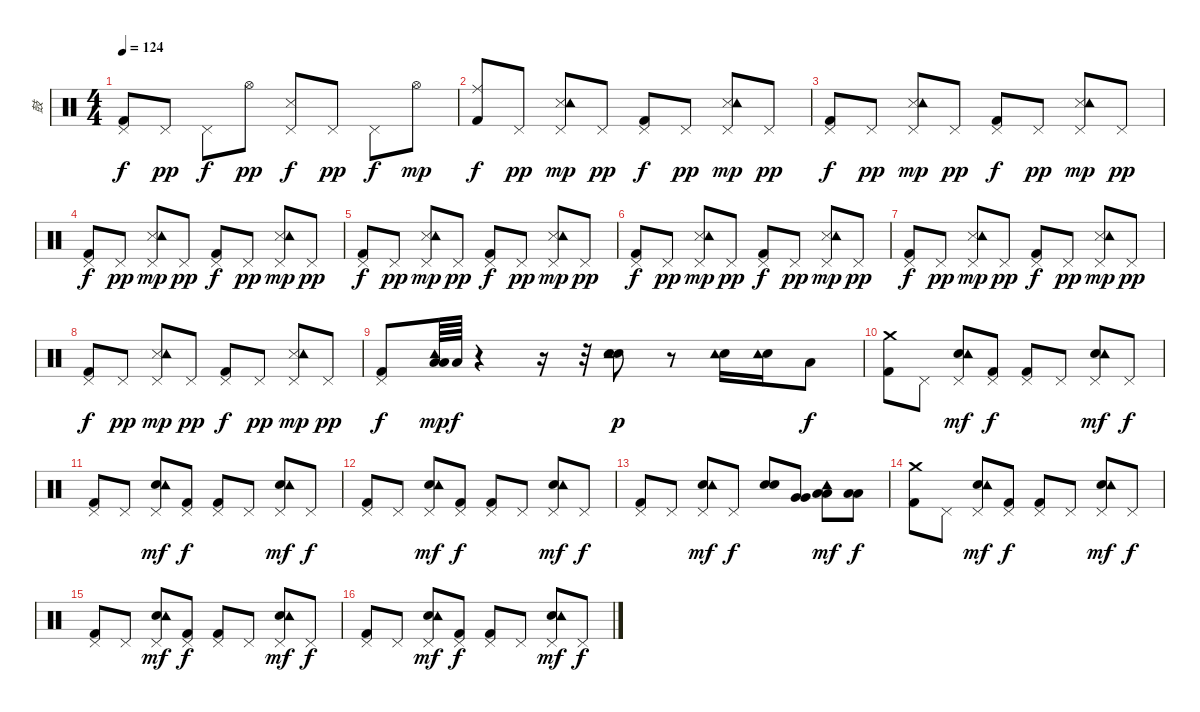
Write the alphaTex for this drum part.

\track ("鼓" "鼓") {instrument percussion}
\staff {score}
\articulation defaults
\ts (4 4)
\tempo 124
\clef neutral
\ks c
("Kick (hit) 2" "Pedal Hi-Hat (hit)").8{dy f} "Pedal Hi-Hat (hit)".8{dy pp} "Pedal Hi-Hat (hit)".8{dy f} "Hi-Hat (open)".8{dy pp} ("Snare (side stick) 3" "Pedal Hi-Hat (hit)").8{dy f} "Pedal Hi-Hat (hit)".8{dy pp} "Pedal Hi-Hat (hit)".8{dy f} "Hi-Hat (open)".8{dy mp} |
("Kick (hit) 2" "Ride (middle)").8{dy f} "Pedal Hi-Hat (hit)".8{dy pp} ("Snare (side stick) 3" "Pedal Hi-Hat (hit)" "Tambourine (hit)").8{dy mp} "Pedal Hi-Hat (hit)".8{dy pp} ("Kick (hit) 2" "Pedal Hi-Hat (hit)").8{dy f} "Pedal Hi-Hat (hit)".8{dy pp} ("Snare (side stick) 3" "Pedal Hi-Hat (hit)" "Tambourine (hit)").8{dy mp} "Pedal Hi-Hat (hit)".8{dy pp} |
("Kick (hit) 2" "Pedal Hi-Hat (hit)").8{dy f} "Pedal Hi-Hat (hit)".8{dy pp} ("Snare (side stick) 3" "Pedal Hi-Hat (hit)" "Tambourine (hit)").8{dy mp} "Pedal Hi-Hat (hit)".8{dy pp} ("Kick (hit) 2" "Pedal Hi-Hat (hit)").8{dy f} "Pedal Hi-Hat (hit)".8{dy pp} ("Snare (side stick) 3" "Pedal Hi-Hat (hit)" "Tambourine (hit)").8{dy mp} "Pedal Hi-Hat (hit)".8{dy pp} |
("Kick (hit) 2" "Pedal Hi-Hat (hit)").8{dy f} "Pedal Hi-Hat (hit)".8{dy pp} ("Snare (side stick) 3" "Pedal Hi-Hat (hit)" "Tambourine (hit)").8{dy mp} "Pedal Hi-Hat (hit)".8{dy pp} ("Kick (hit) 2" "Pedal Hi-Hat (hit)").8{dy f} "Pedal Hi-Hat (hit)".8{dy pp} ("Snare (side stick) 3" "Pedal Hi-Hat (hit)" "Tambourine (hit)").8{dy mp} "Pedal Hi-Hat (hit)".8{dy pp} |
("Kick (hit) 2" "Pedal Hi-Hat (hit)").8{dy f} "Pedal Hi-Hat (hit)".8{dy pp} ("Snare (side stick) 3" "Pedal Hi-Hat (hit)" "Tambourine (hit)").8{dy mp} "Pedal Hi-Hat (hit)".8{dy pp} ("Kick (hit) 2" "Pedal Hi-Hat (hit)").8{dy f} "Pedal Hi-Hat (hit)".8{dy pp} ("Snare (side stick) 3" "Pedal Hi-Hat (hit)" "Tambourine (hit)").8{dy mp} "Pedal Hi-Hat (hit)".8{dy pp} |
("Kick (hit) 2" "Pedal Hi-Hat (hit)").8{dy f} "Pedal Hi-Hat (hit)".8{dy pp} ("Snare (side stick) 3" "Pedal Hi-Hat (hit)" "Tambourine (hit)").8{dy mp} "Pedal Hi-Hat (hit)".8{dy pp} ("Kick (hit) 2" "Pedal Hi-Hat (hit)").8{dy f} "Pedal Hi-Hat (hit)".8{dy pp} ("Snare (side stick) 3" "Pedal Hi-Hat (hit)" "Tambourine (hit)").8{dy mp} "Pedal Hi-Hat (hit)".8{dy pp} |
("Kick (hit) 2" "Pedal Hi-Hat (hit)").8{dy f} "Pedal Hi-Hat (hit)".8{dy pp} ("Snare (side stick) 3" "Pedal Hi-Hat (hit)" "Tambourine (hit)").8{dy mp} "Pedal Hi-Hat (hit)".8{dy pp} ("Kick (hit) 2" "Pedal Hi-Hat (hit)").8{dy f} "Pedal Hi-Hat (hit)".8{dy pp} ("Snare (side stick) 3" "Pedal Hi-Hat (hit)" "Tambourine (hit)").8{dy mp} "Pedal Hi-Hat (hit)".8{dy pp} |
("Kick (hit) 2" "Pedal Hi-Hat (hit)").8{dy f} "Pedal Hi-Hat (hit)".8{dy pp} ("Snare (side stick) 3" "Pedal Hi-Hat (hit)" "Tambourine (hit)").8{dy mp} "Pedal Hi-Hat (hit)".8{dy pp} ("Kick (hit) 2" "Pedal Hi-Hat (hit)").8{dy f} "Pedal Hi-Hat (hit)".8{dy pp} ("Snare (side stick) 3" "Pedal Hi-Hat (hit)" "Tambourine (hit)").8{dy mp} "Pedal Hi-Hat (hit)".8{dy pp} |
("Kick (hit) 2" "Pedal Hi-Hat (hit)").8{dy f} ("Low Tom (hit)" "Low Tom (hit)" "Tambourine (hit)").64{dy mp} "Low Tom (hit)".64{dy f} r.4 r.16 r.32 ("Electric Snare (hit)" "Electric Snare (hit)" "Tambourine (hit)").8{dy p} r.8 ("Electric Snare (hit)" "Tambourine (hit)").16 ("Electric Snare (hit)" "Tambourine (hit)").16 "Low Tom (hit)".8{dy f} |
("Kick (hit) 2" "Crash medium (hit)").8 "Pedal Hi-Hat (hit)".8 ("Electric Snare (hit)" "Pedal Hi-Hat (hit)" "Tambourine (hit)").8{dy mf} ("Kick (hit) 2" "Pedal Hi-Hat (hit)").8{dy f} ("Kick (hit) 2" "Pedal Hi-Hat (hit)").8 "Pedal Hi-Hat (hit)".8 ("Electric Snare (hit)" "Pedal Hi-Hat (hit)" "Tambourine (hit)").8{dy mf} "Pedal Hi-Hat (hit)".8{dy f} |
("Kick (hit) 2" "Pedal Hi-Hat (hit)").8 "Pedal Hi-Hat (hit)".8 ("Electric Snare (hit)" "Pedal Hi-Hat (hit)" "Tambourine (hit)").8{dy mf} ("Kick (hit) 2" "Pedal Hi-Hat (hit)").8{dy f} ("Kick (hit) 2" "Pedal Hi-Hat (hit)").8 "Pedal Hi-Hat (hit)".8 ("Electric Snare (hit)" "Pedal Hi-Hat (hit)" "Tambourine (hit)").8{dy mf} "Pedal Hi-Hat (hit)".8{dy f} |
("Kick (hit) 2" "Pedal Hi-Hat (hit)").8 "Pedal Hi-Hat (hit)".8 ("Electric Snare (hit)" "Pedal Hi-Hat (hit)" "Tambourine (hit)").8{dy mf} ("Kick (hit) 2" "Pedal Hi-Hat (hit)").8{dy f} ("Kick (hit) 2" "Pedal Hi-Hat (hit)").8 "Pedal Hi-Hat (hit)".8 ("Electric Snare (hit)" "Pedal Hi-Hat (hit)" "Tambourine (hit)").8{dy mf} "Pedal Hi-Hat (hit)".8{dy f} |
("Kick (hit) 2" "Pedal Hi-Hat (hit)").8 "Pedal Hi-Hat (hit)".8 ("Electric Snare (hit)" "Pedal Hi-Hat (hit)" "Tambourine (hit)").8{dy mf} "Pedal Hi-Hat (hit)".8{dy f} ("Electric Snare (hit)" "Electric Snare (hit)").8 ("Very Low Tom (hit)" "Very Low Tom (hit)").8 ("Low Tom (hit)" "Low Tom (hit)" "Tambourine (hit)").8{dy mf} ("Low Floor Tom (hit)" "Low Floor Tom (hit)").8{dy f} |
("Kick (hit) 2" "Crash medium (hit)").8 "Pedal Hi-Hat (hit)".8 ("Electric Snare (hit)" "Pedal Hi-Hat (hit)" "Tambourine (hit)").8{dy mf} ("Kick (hit) 2" "Pedal Hi-Hat (hit)").8{dy f} ("Kick (hit) 2" "Pedal Hi-Hat (hit)").8 "Pedal Hi-Hat (hit)".8 ("Electric Snare (hit)" "Pedal Hi-Hat (hit)" "Tambourine (hit)").8{dy mf} "Pedal Hi-Hat (hit)".8{dy f} |
("Kick (hit) 2" "Pedal Hi-Hat (hit)").8 "Pedal Hi-Hat (hit)".8 ("Electric Snare (hit)" "Pedal Hi-Hat (hit)" "Tambourine (hit)").8{dy mf} ("Kick (hit) 2" "Pedal Hi-Hat (hit)").8{dy f} ("Kick (hit) 2" "Pedal Hi-Hat (hit)").8 "Pedal Hi-Hat (hit)".8 ("Electric Snare (hit)" "Pedal Hi-Hat (hit)" "Tambourine (hit)").8{dy mf} "Pedal Hi-Hat (hit)".8{dy f} |
("Kick (hit) 2" "Pedal Hi-Hat (hit)").8 "Pedal Hi-Hat (hit)".8 ("Electric Snare (hit)" "Pedal Hi-Hat (hit)" "Tambourine (hit)").8{dy mf} ("Kick (hit) 2" "Pedal Hi-Hat (hit)").8{dy f} ("Kick (hit) 2" "Pedal Hi-Hat (hit)").8 "Pedal Hi-Hat (hit)".8 ("Electric Snare (hit)" "Pedal Hi-Hat (hit)" "Tambourine (hit)").8{dy mf} "Pedal Hi-Hat (hit)".8{dy f}
